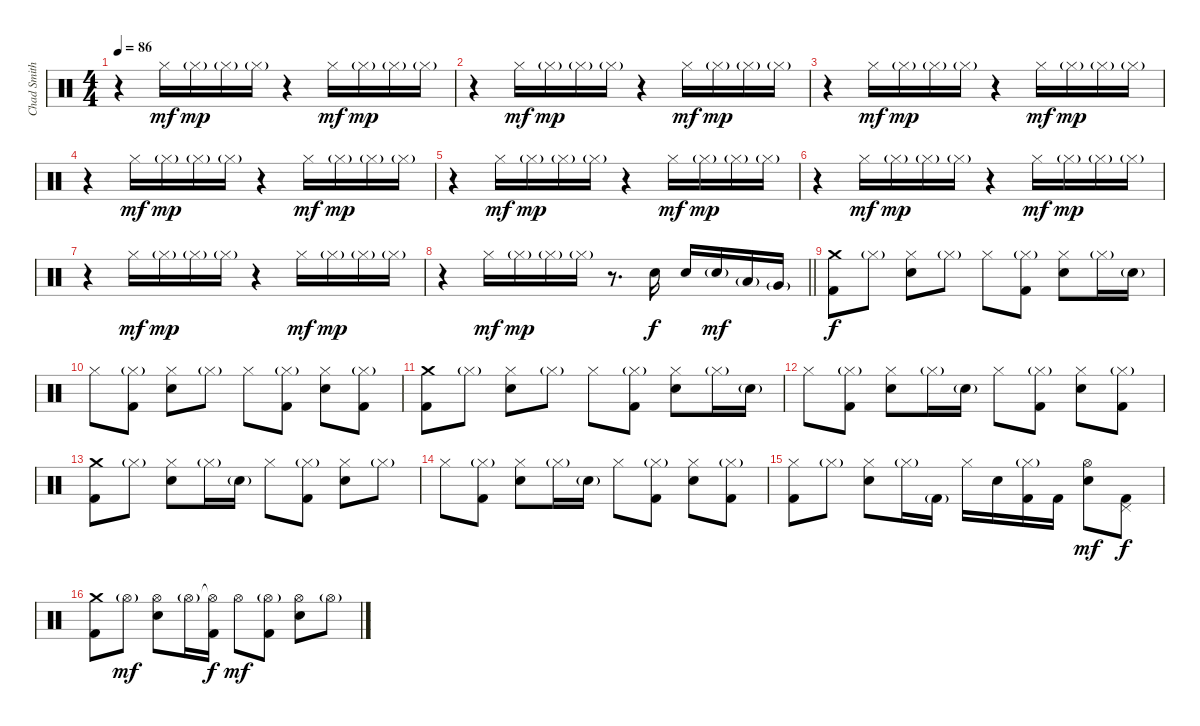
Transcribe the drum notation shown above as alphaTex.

\track ("Chad Smith" "Chad Smith") {instrument percussion}
\staff {score}
\articulation defaults
\ts (4 4)
\tempo 86
\clef neutral
\ks c
r.4{dy mp} "Hi-Hat (closed)".16{dy mf} "Hi-Hat (closed)"{g}.16{dy mp} "Hi-Hat (closed)"{g}.16 "Hi-Hat (closed)"{g}.16 r.4 "Hi-Hat (closed)".16{dy mf} "Hi-Hat (closed)"{g}.16{dy mp} "Hi-Hat (closed)"{g}.16 "Hi-Hat (closed)"{g}.16 |
r.4 "Hi-Hat (closed)".16{dy mf} "Hi-Hat (closed)"{g}.16{dy mp} "Hi-Hat (closed)"{g}.16 "Hi-Hat (closed)"{g}.16 r.4 "Hi-Hat (closed)".16{dy mf} "Hi-Hat (closed)"{g}.16{dy mp} "Hi-Hat (closed)"{g}.16 "Hi-Hat (closed)"{g}.16 |
r.4 "Hi-Hat (closed)".16{dy mf} "Hi-Hat (closed)"{g}.16{dy mp} "Hi-Hat (closed)"{g}.16 "Hi-Hat (closed)"{g}.16 r.4 "Hi-Hat (closed)".16{dy mf} "Hi-Hat (closed)"{g}.16{dy mp} "Hi-Hat (closed)"{g}.16 "Hi-Hat (closed)"{g}.16 |
r.4 "Hi-Hat (closed)".16{dy mf} "Hi-Hat (closed)"{g}.16{dy mp} "Hi-Hat (closed)"{g}.16 "Hi-Hat (closed)"{g}.16 r.4 "Hi-Hat (closed)".16{dy mf} "Hi-Hat (closed)"{g}.16{dy mp} "Hi-Hat (closed)"{g}.16 "Hi-Hat (closed)"{g}.16 |
r.4 "Hi-Hat (closed)".16{dy mf} "Hi-Hat (closed)"{g}.16{dy mp} "Hi-Hat (closed)"{g}.16 "Hi-Hat (closed)"{g}.16 r.4 "Hi-Hat (closed)".16{dy mf} "Hi-Hat (closed)"{g}.16{dy mp} "Hi-Hat (closed)"{g}.16 "Hi-Hat (closed)"{g}.16 |
r.4 "Hi-Hat (closed)".16{dy mf} "Hi-Hat (closed)"{g}.16{dy mp} "Hi-Hat (closed)"{g}.16 "Hi-Hat (closed)"{g}.16 r.4 "Hi-Hat (closed)".16{dy mf} "Hi-Hat (closed)"{g}.16{dy mp} "Hi-Hat (closed)"{g}.16 "Hi-Hat (closed)"{g}.16 |
r.4 "Hi-Hat (closed)".16{dy mf} "Hi-Hat (closed)"{g}.16{dy mp} "Hi-Hat (closed)"{g}.16 "Hi-Hat (closed)"{g}.16 r.4 "Hi-Hat (closed)".16{dy mf} "Hi-Hat (closed)"{g}.16{dy mp} "Hi-Hat (closed)"{g}.16 "Hi-Hat (closed)"{g}.16 |
\barLineRight lightlight
r.4 "Hi-Hat (closed)".16{dy mf} "Hi-Hat (closed)"{g}.16{dy mp} "Hi-Hat (closed)"{g}.16 "Hi-Hat (closed)"{g}.16 r.8{d} "Electric Snare (hit)".16{dy f} "Electric Snare (hit)".16 "Electric Snare (hit)"{g}.16{dy mf} "Low Tom (hit)"{g}.16 "Very Low Tom (hit)"{g}.16 |
("Crash medium (hit)" "Kick (hit) 2").8{dy f} "Hi-Hat (closed)"{g}.8 ("Hi-Hat (closed)" "Electric Snare (hit)").8 "Hi-Hat (closed)"{g}.8 "Hi-Hat (closed)".8 ("Hi-Hat (closed)"{g} "Kick (hit) 2").8 ("Hi-Hat (closed)" "Electric Snare (hit)").8 "Hi-Hat (closed)"{g}.16 "Electric Snare (hit)"{g}.16 |
"Hi-Hat (closed)".8 ("Hi-Hat (closed)"{g} "Kick (hit) 2").8 ("Hi-Hat (closed)" "Electric Snare (hit)").8 "Hi-Hat (closed)"{g}.8 "Hi-Hat (closed)".8 ("Hi-Hat (closed)"{g} "Kick (hit) 2").8 ("Hi-Hat (closed)" "Electric Snare (hit)").8 ("Hi-Hat (closed)"{g} "Kick (hit) 2").8 |
("Crash medium (hit)" "Kick (hit) 2").8 "Hi-Hat (closed)"{g}.8 ("Hi-Hat (closed)" "Electric Snare (hit)").8 "Hi-Hat (closed)"{g}.8 "Hi-Hat (closed)".8 ("Hi-Hat (closed)"{g} "Kick (hit) 2").8 ("Hi-Hat (closed)" "Electric Snare (hit)").8 "Hi-Hat (closed)"{g}.16 "Electric Snare (hit)"{g}.16 |
"Hi-Hat (closed)".8 ("Hi-Hat (closed)"{g} "Kick (hit) 2").8 ("Hi-Hat (closed)" "Electric Snare (hit)").8 "Hi-Hat (closed)"{g}.16 "Electric Snare (hit)"{g}.16 "Hi-Hat (closed)".8 ("Hi-Hat (closed)"{g} "Kick (hit) 2").8 ("Hi-Hat (closed)" "Electric Snare (hit)").8 ("Hi-Hat (closed)"{g} "Kick (hit) 2").8 |
("Crash medium (hit)" "Kick (hit) 2").8 "Hi-Hat (closed)"{g}.8 ("Hi-Hat (closed)" "Electric Snare (hit)").8 "Hi-Hat (closed)"{g}.16 "Electric Snare (hit)"{g}.16 "Hi-Hat (closed)".8 ("Hi-Hat (closed)"{g} "Kick (hit) 2").8 ("Hi-Hat (closed)" "Electric Snare (hit)").8 "Hi-Hat (closed)"{g}.8 |
"Hi-Hat (closed)".8 ("Hi-Hat (closed)"{g} "Kick (hit) 2").8 ("Hi-Hat (closed)" "Electric Snare (hit)").8 "Hi-Hat (closed)"{g}.16 "Electric Snare (hit)"{g}.16 "Hi-Hat (closed)".8 ("Hi-Hat (closed)"{g} "Kick (hit) 2").8 ("Hi-Hat (closed)" "Electric Snare (hit)").8 ("Hi-Hat (closed)"{g} "Kick (hit) 2").8 |
("Hi-Hat (closed)" "Kick (hit) 2").8 "Hi-Hat (closed)"{g}.8 ("Hi-Hat (closed)" "Electric Snare (hit)").8 "Hi-Hat (closed)"{g}.16 "Kick (hit) 2"{g}.16 "Hi-Hat (closed)".16 "Electric Snare (hit)".16 ("Hi-Hat (closed)"{g} "Kick (hit) 2").16 "Kick (hit) 2".16 ("Hi-Hat (open)" "Electric Snare (hit)").8{dy mf} ("Pedal Hi-Hat (hit)" "Kick (hit) 2").8{dy f} |
("Crash medium (hit)" "Kick (hit) 2").8 "Hi-Hat (open)"{g}.8{dy mf} ("Hi-Hat (open)" "Electric Snare (hit)").8 "Hi-Hat (open)"{g}.16 ("Hi-Hat (open)"{t} "Kick (hit) 2").16{dy f} "Hi-Hat (open)".8{dy mf} ("Hi-Hat (open)"{g} "Kick (hit) 2").8 ("Hi-Hat (open)" "Electric Snare (hit)").8 "Hi-Hat (open)"{g}.8
